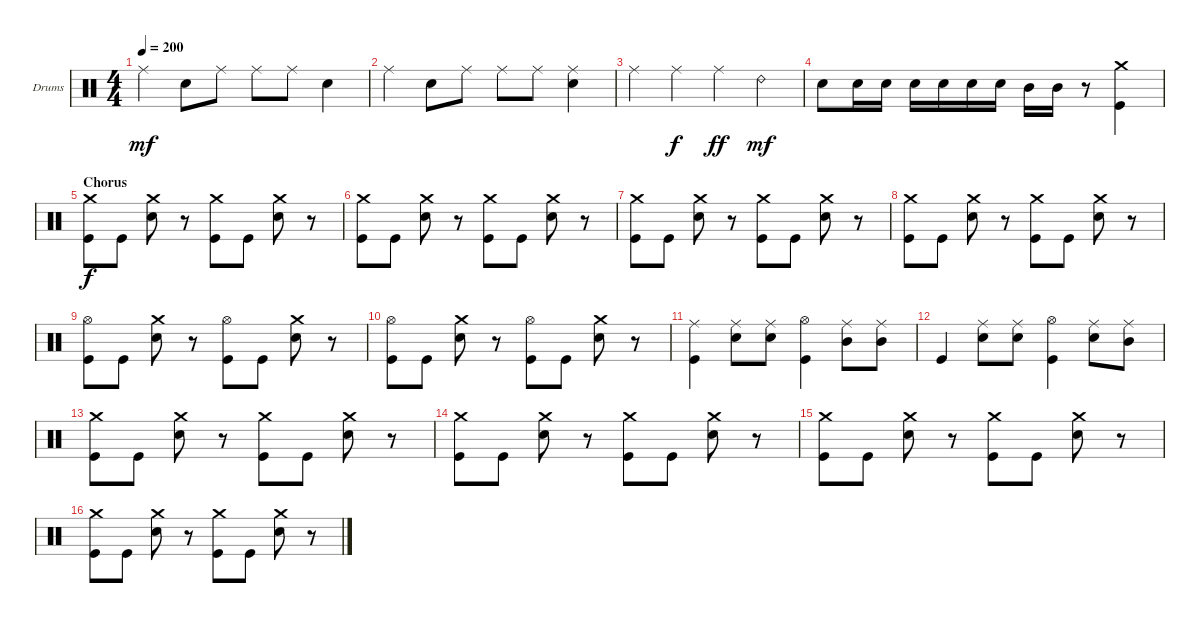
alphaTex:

\bracketExtendMode groupsimilarinstruments
\firstSystemTrackNameOrientation horizontal
\otherSystemsTrackNameOrientation horizontal
\track ("Drumkit" "Drums") {instrument percussion}
\staff {score}
\articulation defaults
\ts (4 4)
\tempo 200
\clef neutral
\ks c "Ride (middle)".4{dy mf} "Snare (hit) 2".8 "Ride (middle)".8 "Ride (middle)".8 "Ride (middle)".8 "Snare (hit) 2".4
|
"Ride (middle)".4 "Snare (hit) 2".8 "Ride (middle)".8 "Ride (middle)".8 "Ride (middle)".8 ("Ride (middle)" "Snare (hit) 2").4 |
"Ride (middle)".4 "Ride (middle)".4{dy f} "Ride (middle)".4{dy ff} "Ride (bell) 2".4{dy mf} |
"Snare (hit) 2".8 "Snare (hit) 2".16 "Snare (hit) 2".16 "Snare (hit) 2".16 "Snare (hit) 2".16 "Snare (hit) 2".16 "Snare (hit) 2".16 "Mid Tom (hit)".16 "Mid Tom (hit)".16 r.8 ("Kick (hit)" "Crash medium (hit)").4 |
\section ("" "Chorus")
("Crash medium (hit)" "Kick (hit)").8{dy f} "Kick (hit)".8 ("Crash medium (hit)" "Snare (hit) 2").8 r.8 ("Crash medium (hit)" "Kick (hit)").8 "Kick (hit)".8 ("Crash medium (hit)" "Snare (hit) 2").8 r.8 |
("Crash medium (hit)" "Kick (hit)").8 "Kick (hit)".8 ("Crash medium (hit)" "Snare (hit) 2").8 r.8 ("Crash medium (hit)" "Kick (hit)").8 "Kick (hit)".8 ("Crash medium (hit)" "Snare (hit) 2").8 r.8 |
("Crash medium (hit)" "Kick (hit)").8 "Kick (hit)".8 ("Crash medium (hit)" "Snare (hit) 2").8 r.8 ("Crash medium (hit)" "Kick (hit)").8 "Kick (hit)".8 ("Crash medium (hit)" "Snare (hit) 2").8 r.8 |
("Crash medium (hit)" "Kick (hit)").8 "Kick (hit)".8 ("Crash medium (hit)" "Snare (hit) 2").8 r.8 ("Crash medium (hit)" "Kick (hit)").8 "Kick (hit)".8 ("Crash medium (hit)" "Snare (hit) 2").8 r.8 |
("Kick (hit)" "Hi-Hat (open)").8 "Kick (hit)".8 ("Crash medium (hit)" "Snare (hit) 2").8 r.8 ("Kick (hit)" "Hi-Hat (open)").8 "Kick (hit)".8 ("Crash medium (hit)" "Snare (hit) 2").8 r.8 |
("Kick (hit)" "Hi-Hat (open)").8 "Kick (hit)".8 ("Crash medium (hit)" "Snare (hit) 2").8 r.8 ("Kick (hit)" "Hi-Hat (open)").8 "Kick (hit)".8 ("Crash medium (hit)" "Snare (hit) 2").8 r.8 |
("Ride (middle)" "Kick (hit)").4 ("Ride (middle)" "Snare (hit) 2").8 ("Ride (middle)" "Snare (hit) 2").8 ("Hi-Hat (open)" "Kick (hit)").4 ("Ride (middle)" "Mid Tom (hit)").8 ("Ride (middle)" "Mid Tom (hit)").8 |
"Kick (hit)".4 ("Ride (middle)" "Snare (hit) 2").8 ("Ride (middle)" "Snare (hit) 2").8 ("Hi-Hat (open)" "Kick (hit)").4 ("Ride (middle)" "Snare (hit) 2").8 ("Ride (middle)" "Mid Tom (hit)").8 |
("Crash medium (hit)" "Kick (hit)").8 "Kick (hit)".8 ("Crash medium (hit)" "Snare (hit) 2").8 r.8 ("Crash medium (hit)" "Kick (hit)").8 "Kick (hit)".8 ("Crash medium (hit)" "Snare (hit) 2").8 r.8 |
("Crash medium (hit)" "Kick (hit)").8 "Kick (hit)".8 ("Crash medium (hit)" "Snare (hit) 2").8 r.8 ("Crash medium (hit)" "Kick (hit)").8 "Kick (hit)".8 ("Crash medium (hit)" "Snare (hit) 2").8 r.8 |
("Crash medium (hit)" "Kick (hit)").8 "Kick (hit)".8 ("Crash medium (hit)" "Snare (hit) 2").8 r.8 ("Crash medium (hit)" "Kick (hit)").8 "Kick (hit)".8 ("Crash medium (hit)" "Snare (hit) 2").8 r.8 |
("Crash medium (hit)" "Kick (hit)").8 "Kick (hit)".8 ("Crash medium (hit)" "Snare (hit) 2").8 r.8 ("Crash medium (hit)" "Kick (hit)").8 "Kick (hit)".8 ("Crash medium (hit)" "Snare (hit) 2").8 r.8
